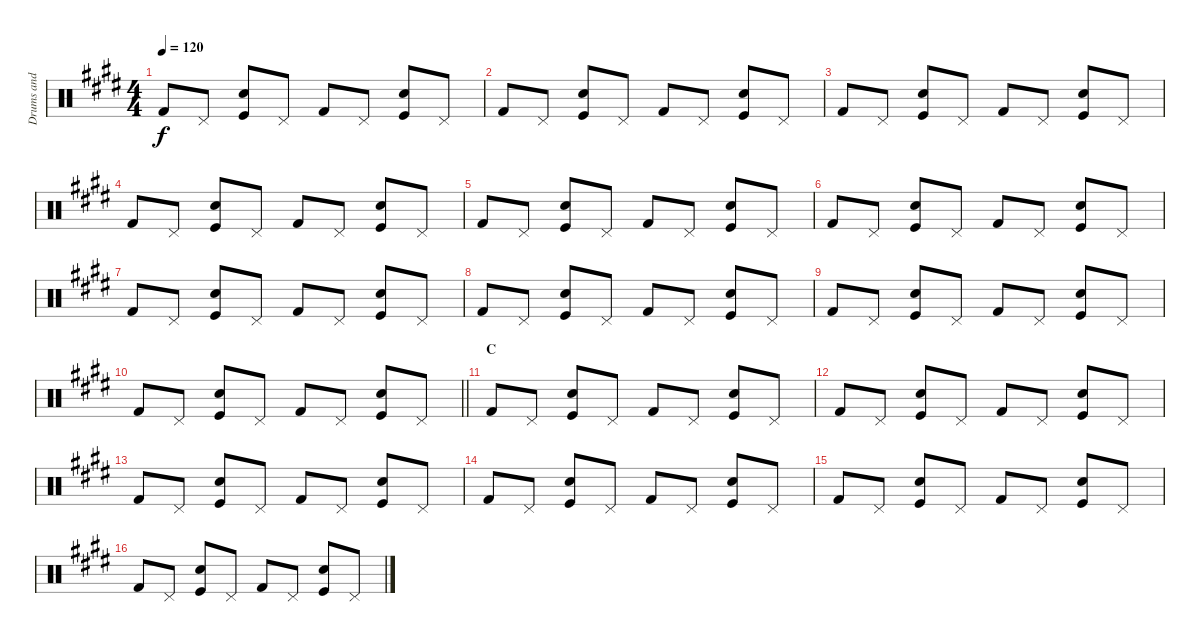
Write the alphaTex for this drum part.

\track ("Drums and clapping" "Drums and ") {instrument percussion}
\staff {score}
\articulation defaults
\ts (4 4)
\tempo 120
\clef neutral
\ks e "Kick (hit) 2".8{dy f} "Pedal Hi-Hat (hit)".8
("Kick (hit)" "Hand Clap (hit)").8 "Pedal Hi-Hat (hit)".8 "Kick (hit) 2".8 "Pedal Hi-Hat (hit)".8 ("Kick (hit)" "Hand Clap (hit)").8 "Pedal Hi-Hat (hit)".8 |
"Kick (hit) 2".8 "Pedal Hi-Hat (hit)".8 ("Kick (hit)" "Hand Clap (hit)").8 "Pedal Hi-Hat (hit)".8 "Kick (hit) 2".8 "Pedal Hi-Hat (hit)".8 ("Kick (hit)" "Hand Clap (hit)").8 "Pedal Hi-Hat (hit)".8 |
"Kick (hit) 2".8 "Pedal Hi-Hat (hit)".8 ("Kick (hit)" "Hand Clap (hit)").8 "Pedal Hi-Hat (hit)".8 "Kick (hit) 2".8 "Pedal Hi-Hat (hit)".8 ("Kick (hit)" "Hand Clap (hit)").8 "Pedal Hi-Hat (hit)".8 |
"Kick (hit) 2".8 "Pedal Hi-Hat (hit)".8 ("Kick (hit)" "Hand Clap (hit)").8 "Pedal Hi-Hat (hit)".8 "Kick (hit) 2".8 "Pedal Hi-Hat (hit)".8 ("Kick (hit)" "Hand Clap (hit)").8 "Pedal Hi-Hat (hit)".8 |
"Kick (hit) 2".8 "Pedal Hi-Hat (hit)".8 ("Kick (hit)" "Hand Clap (hit)").8 "Pedal Hi-Hat (hit)".8 "Kick (hit) 2".8 "Pedal Hi-Hat (hit)".8 ("Kick (hit)" "Hand Clap (hit)").8 "Pedal Hi-Hat (hit)".8 |
"Kick (hit) 2".8 "Pedal Hi-Hat (hit)".8 ("Kick (hit)" "Hand Clap (hit)").8 "Pedal Hi-Hat (hit)".8 "Kick (hit) 2".8 "Pedal Hi-Hat (hit)".8 ("Kick (hit)" "Hand Clap (hit)").8 "Pedal Hi-Hat (hit)".8 |
"Kick (hit) 2".8 "Pedal Hi-Hat (hit)".8 ("Kick (hit)" "Hand Clap (hit)").8 "Pedal Hi-Hat (hit)".8 "Kick (hit) 2".8 "Pedal Hi-Hat (hit)".8 ("Kick (hit)" "Hand Clap (hit)").8 "Pedal Hi-Hat (hit)".8 |
"Kick (hit) 2".8 "Pedal Hi-Hat (hit)".8 ("Kick (hit)" "Hand Clap (hit)").8 "Pedal Hi-Hat (hit)".8 "Kick (hit) 2".8 "Pedal Hi-Hat (hit)".8 ("Kick (hit)" "Hand Clap (hit)").8 "Pedal Hi-Hat (hit)".8 |
"Kick (hit) 2".8 "Pedal Hi-Hat (hit)".8 ("Kick (hit)" "Hand Clap (hit)").8 "Pedal Hi-Hat (hit)".8 "Kick (hit) 2".8 "Pedal Hi-Hat (hit)".8 ("Kick (hit)" "Hand Clap (hit)").8 "Pedal Hi-Hat (hit)".8 |
\barLineRight lightlight "Kick (hit) 2".8 "Pedal Hi-Hat (hit)".8
("Kick (hit)" "Hand Clap (hit)").8 "Pedal Hi-Hat (hit)".8 "Kick (hit) 2".8 "Pedal Hi-Hat (hit)".8 ("Kick (hit)" "Hand Clap (hit)").8 "Pedal Hi-Hat (hit)".8 |
\section ("" "C")
"Kick (hit) 2".8 "Pedal Hi-Hat (hit)".8 ("Kick (hit)" "Hand Clap (hit)").8 "Pedal Hi-Hat (hit)".8 "Kick (hit) 2".8 "Pedal Hi-Hat (hit)".8 ("Kick (hit)" "Hand Clap (hit)").8 "Pedal Hi-Hat (hit)".8 |
"Kick (hit) 2".8 "Pedal Hi-Hat (hit)".8 ("Kick (hit)" "Hand Clap (hit)").8 "Pedal Hi-Hat (hit)".8 "Kick (hit) 2".8 "Pedal Hi-Hat (hit)".8 ("Kick (hit)" "Hand Clap (hit)").8 "Pedal Hi-Hat (hit)".8 |
"Kick (hit) 2".8 "Pedal Hi-Hat (hit)".8 ("Kick (hit)" "Hand Clap (hit)").8 "Pedal Hi-Hat (hit)".8 "Kick (hit) 2".8 "Pedal Hi-Hat (hit)".8 ("Kick (hit)" "Hand Clap (hit)").8 "Pedal Hi-Hat (hit)".8 |
"Kick (hit) 2".8 "Pedal Hi-Hat (hit)".8 ("Kick (hit)" "Hand Clap (hit)").8 "Pedal Hi-Hat (hit)".8 "Kick (hit) 2".8 "Pedal Hi-Hat (hit)".8 ("Kick (hit)" "Hand Clap (hit)").8 "Pedal Hi-Hat (hit)".8 |
"Kick (hit) 2".8 "Pedal Hi-Hat (hit)".8 ("Kick (hit)" "Hand Clap (hit)").8 "Pedal Hi-Hat (hit)".8 "Kick (hit) 2".8 "Pedal Hi-Hat (hit)".8 ("Kick (hit)" "Hand Clap (hit)").8 "Pedal Hi-Hat (hit)".8 |
"Kick (hit) 2".8 "Pedal Hi-Hat (hit)".8 ("Kick (hit)" "Hand Clap (hit)").8 "Pedal Hi-Hat (hit)".8 "Kick (hit) 2".8 "Pedal Hi-Hat (hit)".8 ("Kick (hit)" "Hand Clap (hit)").8 "Pedal Hi-Hat (hit)".8
